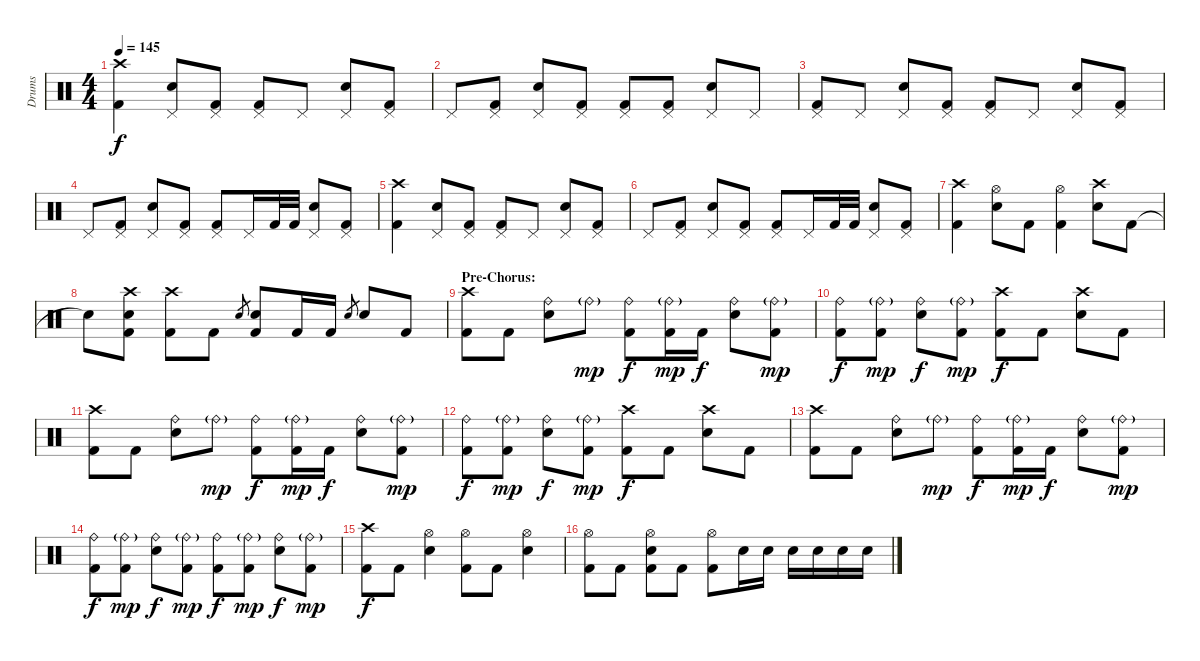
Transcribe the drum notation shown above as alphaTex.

\track ("Drums" "Drums") {instrument percussion}
\staff {score}
\articulation defaults
\ts (4 4)
\tempo 145
\clef neutral
\ks c
("Crash high (hit)" "Kick (hit) 2").4{dy f} ("Pedal Hi-Hat (hit)" "Electric Snare (hit)").8 ("Pedal Hi-Hat (hit)" "Kick (hit) 2").8 ("Pedal Hi-Hat (hit)" "Kick (hit) 2").8 "Pedal Hi-Hat (hit)".8 ("Pedal Hi-Hat (hit)" "Electric Snare (hit)").8 ("Pedal Hi-Hat (hit)" "Kick (hit) 2").8 |
"Pedal Hi-Hat (hit)".8 ("Pedal Hi-Hat (hit)" "Kick (hit) 2").8 ("Pedal Hi-Hat (hit)" "Electric Snare (hit)").8 ("Pedal Hi-Hat (hit)" "Kick (hit) 2").8 ("Pedal Hi-Hat (hit)" "Kick (hit) 2").8 ("Pedal Hi-Hat (hit)" "Kick (hit) 2").8 ("Pedal Hi-Hat (hit)" "Electric Snare (hit)").8 "Pedal Hi-Hat (hit)".8 |
("Pedal Hi-Hat (hit)" "Kick (hit) 2").8 "Pedal Hi-Hat (hit)".8 ("Pedal Hi-Hat (hit)" "Electric Snare (hit)").8 ("Pedal Hi-Hat (hit)" "Kick (hit) 2").8 ("Pedal Hi-Hat (hit)" "Kick (hit) 2").8 "Pedal Hi-Hat (hit)".8 ("Pedal Hi-Hat (hit)" "Electric Snare (hit)").8 ("Pedal Hi-Hat (hit)" "Kick (hit) 2").8 |
"Pedal Hi-Hat (hit)".8 ("Pedal Hi-Hat (hit)" "Kick (hit) 2").8 ("Pedal Hi-Hat (hit)" "Electric Snare (hit)").8 ("Pedal Hi-Hat (hit)" "Kick (hit) 2").8 ("Pedal Hi-Hat (hit)" "Kick (hit) 2").8 "Pedal Hi-Hat (hit)".16 "Kick (hit) 2".32 "Kick (hit) 2".32 ("Pedal Hi-Hat (hit)" "Electric Snare (hit)").8 ("Pedal Hi-Hat (hit)" "Kick (hit) 2").8 |
("Crash high (hit)" "Kick (hit) 2").4 ("Pedal Hi-Hat (hit)" "Electric Snare (hit)").8 ("Pedal Hi-Hat (hit)" "Kick (hit) 2").8 ("Pedal Hi-Hat (hit)" "Kick (hit) 2").8 "Pedal Hi-Hat (hit)".8 ("Pedal Hi-Hat (hit)" "Electric Snare (hit)").8 ("Pedal Hi-Hat (hit)" "Kick (hit) 2").8 |
"Pedal Hi-Hat (hit)".8 ("Pedal Hi-Hat (hit)" "Kick (hit) 2").8 ("Pedal Hi-Hat (hit)" "Electric Snare (hit)").8 ("Pedal Hi-Hat (hit)" "Kick (hit) 2").8 ("Pedal Hi-Hat (hit)" "Kick (hit) 2").8 "Pedal Hi-Hat (hit)".16 "Kick (hit) 2".32 "Kick (hit) 2".32 ("Pedal Hi-Hat (hit)" "Electric Snare (hit)").8 ("Pedal Hi-Hat (hit)" "Kick (hit) 2").8 |
("Crash high (hit)" "Kick (hit) 2").4 ("Hi-Hat (open)" "Electric Snare (hit)").8 "Kick (hit) 2".8 ("Hi-Hat (open)" "Kick (hit) 2").4 ("Crash high (hit)" "Electric Snare (hit)").8 "Kick (hit) 2".8 |
"Snare (hit)"{t}.8 ("Crash high (hit)" "Electric Snare (hit)" "Kick (hit) 2").8 ("Crash high (hit)" "Kick (hit) 2").8 "Kick (hit) 2".8 "Electric Snare (hit)".8{gr} ("Electric Snare (hit)" "Kick (hit) 2").8 "Kick (hit) 2".16 "Kick (hit) 2".16 "Electric Snare (hit)".8{gr} "Electric Snare (hit)".8 "Kick (hit) 2".8 |
\section ("" "Pre-Chorus:")
("Crash high (hit)" "Kick (hit) 2").8 "Kick (hit) 2".8 ("Ride (bell)" "Electric Snare (hit)").8 "Ride (bell)"{g}.8{dy mp} ("Ride (bell)" "Kick (hit) 2").8{dy f} ("Ride (bell)"{g} "Kick (hit) 2").16{dy mp} "Kick (hit) 2".16{dy f} ("Ride (bell)" "Electric Snare (hit)").8 ("Ride (bell)"{g} "Kick (hit) 2").8{dy mp} |
("Ride (bell)" "Kick (hit) 2").8{dy f} ("Ride (bell)"{g} "Kick (hit) 2").8{dy mp} ("Ride (bell)" "Electric Snare (hit)").8{dy f} ("Ride (bell)"{g} "Kick (hit) 2").8{dy mp} ("Crash high (hit)" "Kick (hit) 2").8{dy f} "Kick (hit) 2".8 ("Crash high (hit)" "Electric Snare (hit)").8 "Kick (hit) 2".8 |
("Crash high (hit)" "Kick (hit) 2").8 "Kick (hit) 2".8 ("Ride (bell)" "Electric Snare (hit)").8 "Ride (bell)"{g}.8{dy mp} ("Ride (bell)" "Kick (hit) 2").8{dy f} ("Ride (bell)"{g} "Kick (hit) 2").16{dy mp} "Kick (hit) 2".16{dy f} ("Ride (bell)" "Electric Snare (hit)").8 ("Ride (bell)"{g} "Kick (hit) 2").8{dy mp} |
("Ride (bell)" "Kick (hit) 2").8{dy f} ("Ride (bell)"{g} "Kick (hit) 2").8{dy mp} ("Ride (bell)" "Electric Snare (hit)").8{dy f} ("Ride (bell)"{g} "Kick (hit) 2").8{dy mp} ("Crash high (hit)" "Kick (hit) 2").8{dy f} "Kick (hit) 2".8 ("Crash high (hit)" "Electric Snare (hit)").8 "Kick (hit) 2".8 |
("Crash high (hit)" "Kick (hit) 2").8 "Kick (hit) 2".8 ("Ride (bell)" "Electric Snare (hit)").8 "Ride (bell)"{g}.8{dy mp} ("Ride (bell)" "Kick (hit) 2").8{dy f} ("Ride (bell)"{g} "Kick (hit) 2").16{dy mp} "Kick (hit) 2".16{dy f} ("Ride (bell)" "Electric Snare (hit)").8 ("Ride (bell)"{g} "Kick (hit) 2").8{dy mp} |
("Ride (bell)" "Kick (hit) 2").8{dy f} ("Ride (bell)"{g} "Kick (hit) 2").8{dy mp} ("Ride (bell)" "Electric Snare (hit)").8{dy f} ("Ride (bell)"{g} "Kick (hit) 2").8{dy mp} ("Ride (bell)" "Kick (hit) 2").8{dy f} ("Ride (bell)"{g} "Kick (hit) 2").8{dy mp} ("Ride (bell)" "Electric Snare (hit)").8{dy f} ("Ride (bell)"{g} "Kick (hit) 2").8{dy mp} |
("Crash high (hit)" "Kick (hit) 2").8{dy f} "Kick (hit) 2".8 ("Hi-Hat (open)" "Electric Snare (hit)").4 ("Hi-Hat (open)" "Kick (hit) 2").8 "Kick (hit) 2".8 ("Hi-Hat (open)" "Electric Snare (hit)").4 |
("Hi-Hat (open)" "Kick (hit) 2").8 "Kick (hit) 2".8 ("Hi-Hat (open)" "Electric Snare (hit)" "Kick (hit) 2").8 "Kick (hit) 2".8 ("Hi-Hat (open)" "Kick (hit) 2").8 "Electric Snare (hit)".16 "Electric Snare (hit)".16 "Electric Snare (hit)".16 "Electric Snare (hit)".16 "Electric Snare (hit)".16 "Electric Snare (hit)".16
